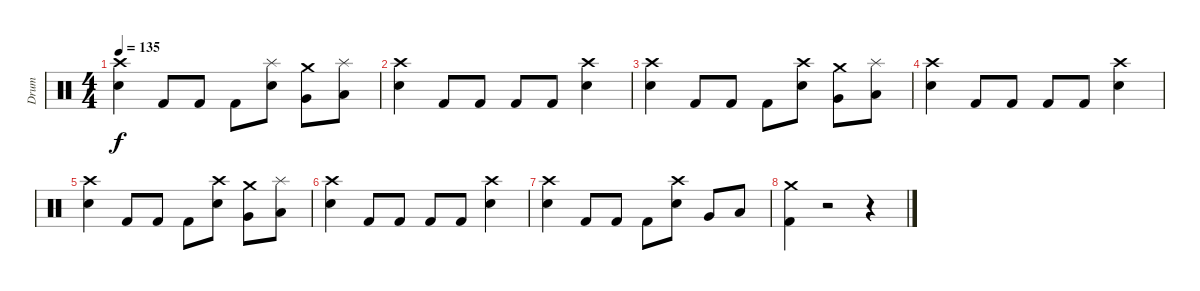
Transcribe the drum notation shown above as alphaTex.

\track ("Drum" "Drum") {instrument percussion}
\staff {score}
\articulation defaults
\ts (4 4)
\tempo 135
\clef neutral
\ks c
("Crash high (hit)" "Electric Snare (hit)").4{dy f} "Kick (hit) 2".8 "Kick (hit) 2".8 "Kick (hit) 2".8 ("Splash (hit)" "Electric Snare (hit)").8 ("Crash medium (hit)" "Very Low Tom (hit)").8 ("Splash (hit)" "Low Floor Tom (hit)").8 |
("Crash high (hit)" "Electric Snare (hit)").4 "Kick (hit) 2".8 "Kick (hit) 2".8 "Kick (hit) 2".8 "Kick (hit) 2".8 ("Crash high (hit)" "Electric Snare (hit)").4 |
("Crash high (hit)" "Electric Snare (hit)").4 "Kick (hit) 2".8 "Kick (hit) 2".8 "Kick (hit) 2".8 ("Crash high (hit)" "Electric Snare (hit)").8 ("Very Low Tom (hit)" "Crash medium (hit)").8 ("Low Floor Tom (hit)" "Splash (hit)").8 |
("Crash high (hit)" "Electric Snare (hit)").4 "Kick (hit) 2".8 "Kick (hit) 2".8 "Kick (hit) 2".8 "Kick (hit) 2".8 ("Crash high (hit)" "Electric Snare (hit)").4 |
("Crash high (hit)" "Electric Snare (hit)").4 "Kick (hit) 2".8 "Kick (hit) 2".8 "Kick (hit) 2".8 ("Crash high (hit)" "Electric Snare (hit)").8 ("Crash medium (hit)" "Very Low Tom (hit)").8 ("Splash (hit)" "Low Floor Tom (hit)").8 |
("Crash high (hit)" "Electric Snare (hit)").4 "Kick (hit) 2".8 "Kick (hit) 2".8 "Kick (hit) 2".8 "Kick (hit) 2".8 ("Crash high (hit)" "Electric Snare (hit)").4 |
("Crash high (hit)" "Electric Snare (hit)").4 "Kick (hit) 2".8 "Kick (hit) 2".8 "Kick (hit) 2".8 ("Crash high (hit)" "Electric Snare (hit)").8 "Very Low Tom (hit)".8 "Low Floor Tom (hit)".8 |
("Crash medium (hit)" "Kick (hit) 2").4 r.2 r.4
